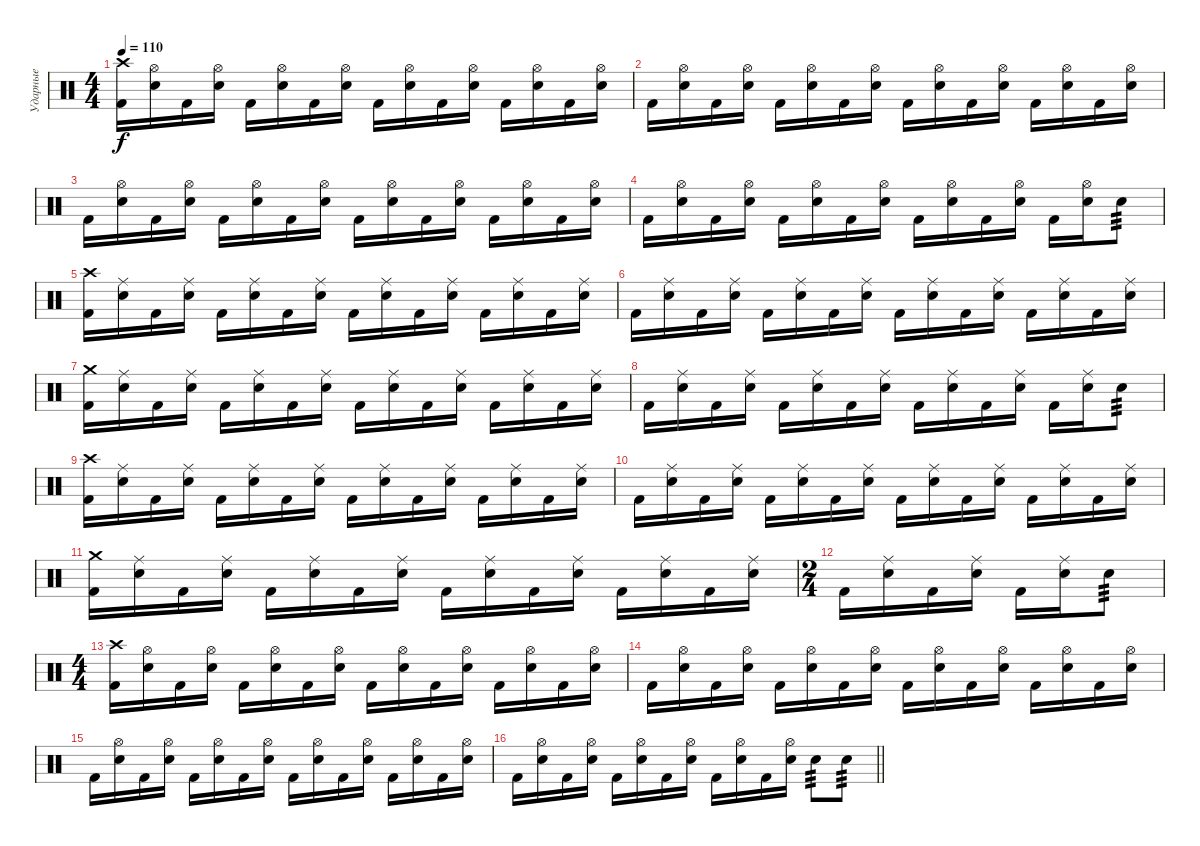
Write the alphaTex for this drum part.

\track ("Ударные" "Ударные") {instrument percussion}
\staff {score}
\articulation defaults
\ts (4 4)
\tempo 110
\clef neutral
\ks c
("Crash high (hit)" "Kick (hit) 2").16{dy f} ("Hi-Hat (open)" "Electric Snare (hit)").16 "Kick (hit) 2".16 ("Hi-Hat (open)" "Electric Snare (hit)").16 "Kick (hit) 2".16 ("Hi-Hat (open)" "Electric Snare (hit)").16 "Kick (hit) 2".16 ("Hi-Hat (open)" "Electric Snare (hit)").16 "Kick (hit) 2".16 ("Hi-Hat (open)" "Electric Snare (hit)").16 "Kick (hit) 2".16 ("Hi-Hat (open)" "Electric Snare (hit)").16 "Kick (hit) 2".16 ("Hi-Hat (open)" "Electric Snare (hit)").16 "Kick (hit) 2".16 ("Hi-Hat (open)" "Electric Snare (hit)").16 |
"Kick (hit) 2".16 ("Hi-Hat (open)" "Electric Snare (hit)").16 "Kick (hit) 2".16 ("Hi-Hat (open)" "Electric Snare (hit)").16 "Kick (hit) 2".16 ("Hi-Hat (open)" "Electric Snare (hit)").16 "Kick (hit) 2".16 ("Hi-Hat (open)" "Electric Snare (hit)").16 "Kick (hit) 2".16 ("Hi-Hat (open)" "Electric Snare (hit)").16 "Kick (hit) 2".16 ("Hi-Hat (open)" "Electric Snare (hit)").16 "Kick (hit) 2".16 ("Hi-Hat (open)" "Electric Snare (hit)").16 "Kick (hit) 2".16 ("Hi-Hat (open)" "Electric Snare (hit)").16 |
"Kick (hit) 2".16 ("Hi-Hat (open)" "Electric Snare (hit)").16 "Kick (hit) 2".16 ("Hi-Hat (open)" "Electric Snare (hit)").16 "Kick (hit) 2".16 ("Hi-Hat (open)" "Electric Snare (hit)").16 "Kick (hit) 2".16 ("Hi-Hat (open)" "Electric Snare (hit)").16 "Kick (hit) 2".16 ("Hi-Hat (open)" "Electric Snare (hit)").16 "Kick (hit) 2".16 ("Hi-Hat (open)" "Electric Snare (hit)").16 "Kick (hit) 2".16 ("Hi-Hat (open)" "Electric Snare (hit)").16 "Kick (hit) 2".16 ("Hi-Hat (open)" "Electric Snare (hit)").16 |
"Kick (hit) 2".16 ("Hi-Hat (open)" "Electric Snare (hit)").16 "Kick (hit) 2".16 ("Hi-Hat (open)" "Electric Snare (hit)").16 "Kick (hit) 2".16 ("Hi-Hat (open)" "Electric Snare (hit)").16 "Kick (hit) 2".16 ("Hi-Hat (open)" "Electric Snare (hit)").16 "Kick (hit) 2".16 ("Hi-Hat (open)" "Electric Snare (hit)").16 "Kick (hit) 2".16 ("Hi-Hat (open)" "Electric Snare (hit)").16 "Kick (hit) 2".16 ("Hi-Hat (open)" "Electric Snare (hit)").16 "Electric Snare (hit)".8{tp 3} |
("Crash high (hit)" "Kick (hit) 2").16 ("Ride (middle)" "Electric Snare (hit)").16 "Kick (hit) 2".16 ("Ride (middle)" "Electric Snare (hit)").16 "Kick (hit) 2".16 ("Ride (middle)" "Electric Snare (hit)").16 "Kick (hit) 2".16 ("Ride (middle)" "Electric Snare (hit)").16 "Kick (hit) 2".16 ("Ride (middle)" "Electric Snare (hit)").16 "Kick (hit) 2".16 ("Ride (middle)" "Electric Snare (hit)").16 "Kick (hit) 2".16 ("Ride (middle)" "Electric Snare (hit)").16 "Kick (hit) 2".16 ("Ride (middle)" "Electric Snare (hit)").16 |
"Kick (hit) 2".16 ("Ride (middle)" "Electric Snare (hit)").16 "Kick (hit) 2".16 ("Ride (middle)" "Electric Snare (hit)").16 "Kick (hit) 2".16 ("Ride (middle)" "Electric Snare (hit)").16 "Kick (hit) 2".16 ("Ride (middle)" "Electric Snare (hit)").16 "Kick (hit) 2".16 ("Ride (middle)" "Electric Snare (hit)").16 "Kick (hit) 2".16 ("Ride (middle)" "Electric Snare (hit)").16 "Kick (hit) 2".16 ("Ride (middle)" "Electric Snare (hit)").16 "Kick (hit) 2".16 ("Ride (middle)" "Electric Snare (hit)").16 |
("Crash medium (hit)" "Kick (hit) 2").16 ("Ride (middle)" "Electric Snare (hit)").16 "Kick (hit) 2".16 ("Ride (middle)" "Electric Snare (hit)").16 "Kick (hit) 2".16 ("Ride (middle)" "Electric Snare (hit)").16 "Kick (hit) 2".16 ("Ride (middle)" "Electric Snare (hit)").16 "Kick (hit) 2".16 ("Ride (middle)" "Electric Snare (hit)").16 "Kick (hit) 2".16 ("Ride (middle)" "Electric Snare (hit)").16 "Kick (hit) 2".16 ("Ride (middle)" "Electric Snare (hit)").16 "Kick (hit) 2".16 ("Ride (middle)" "Electric Snare (hit)").16 |
"Kick (hit) 2".16 ("Ride (middle)" "Electric Snare (hit)").16 "Kick (hit) 2".16 ("Ride (middle)" "Electric Snare (hit)").16 "Kick (hit) 2".16 ("Ride (middle)" "Electric Snare (hit)").16 "Kick (hit) 2".16 ("Ride (middle)" "Electric Snare (hit)").16 "Kick (hit) 2".16 ("Ride (middle)" "Electric Snare (hit)").16 "Kick (hit) 2".16 ("Ride (middle)" "Electric Snare (hit)").16 "Kick (hit) 2".16 ("Ride (middle)" "Electric Snare (hit)").16 "Electric Snare (hit)".8{tp 3} |
("Crash high (hit)" "Kick (hit) 2").16 ("Ride (middle)" "Electric Snare (hit)").16 "Kick (hit) 2".16 ("Ride (middle)" "Electric Snare (hit)").16 "Kick (hit) 2".16 ("Ride (middle)" "Electric Snare (hit)").16 "Kick (hit) 2".16 ("Ride (middle)" "Electric Snare (hit)").16 "Kick (hit) 2".16 ("Ride (middle)" "Electric Snare (hit)").16 "Kick (hit) 2".16 ("Ride (middle)" "Electric Snare (hit)").16 "Kick (hit) 2".16 ("Ride (middle)" "Electric Snare (hit)").16 "Kick (hit) 2".16 ("Ride (middle)" "Electric Snare (hit)").16 |
"Kick (hit) 2".16 ("Ride (middle)" "Electric Snare (hit)").16 "Kick (hit) 2".16 ("Ride (middle)" "Electric Snare (hit)").16 "Kick (hit) 2".16 ("Ride (middle)" "Electric Snare (hit)").16 "Kick (hit) 2".16 ("Ride (middle)" "Electric Snare (hit)").16 "Kick (hit) 2".16 ("Ride (middle)" "Electric Snare (hit)").16 "Kick (hit) 2".16 ("Ride (middle)" "Electric Snare (hit)").16 "Kick (hit) 2".16 ("Ride (middle)" "Electric Snare (hit)").16 "Kick (hit) 2".16 ("Ride (middle)" "Electric Snare (hit)").16 |
("Crash medium (hit)" "Kick (hit) 2").16 ("Ride (middle)" "Electric Snare (hit)").16 "Kick (hit) 2".16 ("Ride (middle)" "Electric Snare (hit)").16 "Kick (hit) 2".16 ("Ride (middle)" "Electric Snare (hit)").16 "Kick (hit) 2".16 ("Ride (middle)" "Electric Snare (hit)").16 "Kick (hit) 2".16 ("Ride (middle)" "Electric Snare (hit)").16 "Kick (hit) 2".16 ("Ride (middle)" "Electric Snare (hit)").16 "Kick (hit) 2".16 ("Ride (middle)" "Electric Snare (hit)").16 "Kick (hit) 2".16 ("Ride (middle)" "Electric Snare (hit)").16 |
\ts (2 4)
"Kick (hit) 2".16 ("Ride (middle)" "Electric Snare (hit)").16 "Kick (hit) 2".16 ("Ride (middle)" "Electric Snare (hit)").16 "Kick (hit) 2".16 ("Ride (middle)" "Electric Snare (hit)").16 "Electric Snare (hit)".8{tp 3} |
\ts (4 4)
("Crash high (hit)" "Kick (hit) 2").16 ("Hi-Hat (open)" "Electric Snare (hit)").16 "Kick (hit) 2".16 ("Hi-Hat (open)" "Electric Snare (hit)").16 "Kick (hit) 2".16 ("Hi-Hat (open)" "Electric Snare (hit)").16 "Kick (hit) 2".16 ("Hi-Hat (open)" "Electric Snare (hit)").16 "Kick (hit) 2".16 ("Hi-Hat (open)" "Electric Snare (hit)").16 "Kick (hit) 2".16 ("Hi-Hat (open)" "Electric Snare (hit)").16 "Kick (hit) 2".16 ("Hi-Hat (open)" "Electric Snare (hit)").16 "Kick (hit) 2".16 ("Hi-Hat (open)" "Electric Snare (hit)").16 |
"Kick (hit) 2".16 ("Hi-Hat (open)" "Electric Snare (hit)").16 "Kick (hit) 2".16 ("Hi-Hat (open)" "Electric Snare (hit)").16 "Kick (hit) 2".16 ("Hi-Hat (open)" "Electric Snare (hit)").16 "Kick (hit) 2".16 ("Hi-Hat (open)" "Electric Snare (hit)").16 "Kick (hit) 2".16 ("Hi-Hat (open)" "Electric Snare (hit)").16 "Kick (hit) 2".16 ("Hi-Hat (open)" "Electric Snare (hit)").16 "Kick (hit) 2".16 ("Hi-Hat (open)" "Electric Snare (hit)").16 "Kick (hit) 2".16 ("Hi-Hat (open)" "Electric Snare (hit)").16 |
"Kick (hit) 2".16 ("Hi-Hat (open)" "Electric Snare (hit)").16 "Kick (hit) 2".16 ("Hi-Hat (open)" "Electric Snare (hit)").16 "Kick (hit) 2".16 ("Hi-Hat (open)" "Electric Snare (hit)").16 "Kick (hit) 2".16 ("Hi-Hat (open)" "Electric Snare (hit)").16 "Kick (hit) 2".16 ("Hi-Hat (open)" "Electric Snare (hit)").16 "Kick (hit) 2".16 ("Hi-Hat (open)" "Electric Snare (hit)").16 "Kick (hit) 2".16 ("Hi-Hat (open)" "Electric Snare (hit)").16 "Kick (hit) 2".16 ("Hi-Hat (open)" "Electric Snare (hit)").16 |
\barLineRight lightlight "Kick (hit) 2".16
("Hi-Hat (open)" "Electric Snare (hit)").16 "Kick (hit) 2".16 ("Hi-Hat (open)" "Electric Snare (hit)").16 "Kick (hit) 2".16 ("Hi-Hat (open)" "Electric Snare (hit)").16 "Kick (hit) 2".16 ("Hi-Hat (open)" "Electric Snare (hit)").16 "Kick (hit) 2".16 ("Hi-Hat (open)" "Electric Snare (hit)").16 "Kick (hit) 2".16 ("Hi-Hat (open)" "Electric Snare (hit)").16 "Electric Snare (hit)".8{tp 3} "Electric Snare (hit)".8{tp 3}
